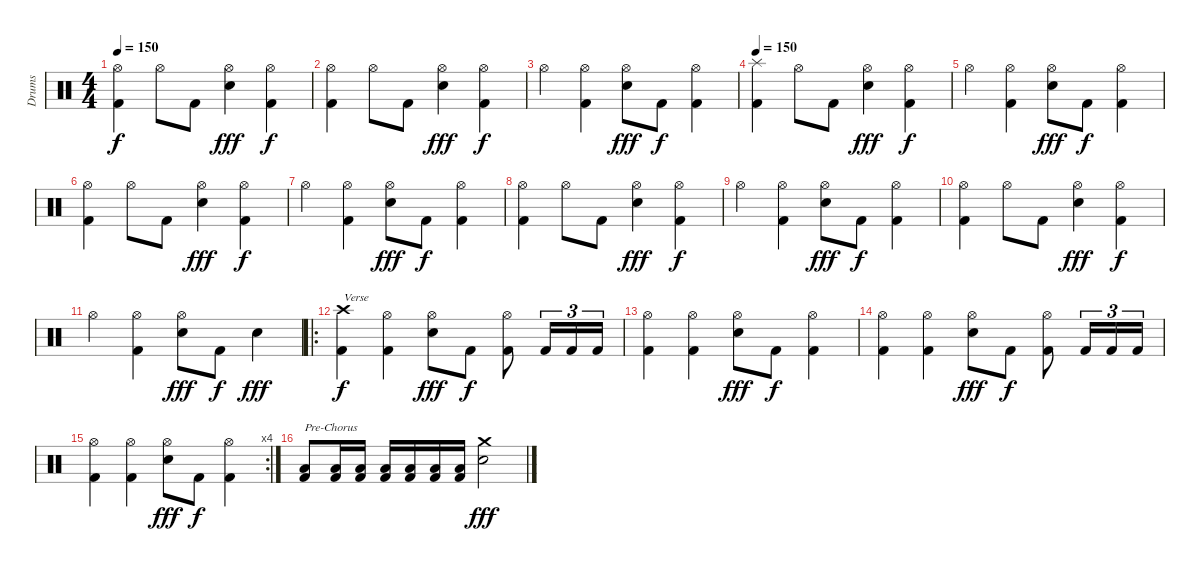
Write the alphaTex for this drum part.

\track ("Drums" "Drums") {instrument percussion}
\staff {score}
\articulation defaults
\ts (4 4)
\tempo 150
\clef neutral
\ks c
("Hi-Hat (open)" "Kick (hit) 2").4{dy f} "Hi-Hat (open)".8 "Kick (hit) 2".8 ("Hi-Hat (open)" "Snare (hit) 2").4{dy fff} ("Hi-Hat (open)" "Kick (hit) 2").4{dy f} |
("Hi-Hat (open)" "Kick (hit) 2").4 "Hi-Hat (open)".8 "Kick (hit) 2".8 ("Hi-Hat (open)" "Snare (hit) 2").4{dy fff} ("Hi-Hat (open)" "Kick (hit) 2").4{dy f} |
"Hi-Hat (open)".4 ("Hi-Hat (open)" "Kick (hit) 2").4 ("Hi-Hat (open)" "Snare (hit) 2").8{dy fff} "Kick (hit) 2".8{dy f} ("Hi-Hat (open)" "Kick (hit) 2").4 |
\tempo 150
("Splash (hit)" "Kick (hit) 2").4 "Hi-Hat (open)".8 "Kick (hit) 2".8 ("Hi-Hat (open)" "Snare (hit) 2").4{dy fff} ("Hi-Hat (open)" "Kick (hit) 2").4{dy f} |
"Hi-Hat (open)".4 ("Hi-Hat (open)" "Kick (hit) 2").4 ("Hi-Hat (open)" "Snare (hit) 2").8{dy fff} "Kick (hit) 2".8{dy f} ("Hi-Hat (open)" "Kick (hit) 2").4 |
("Hi-Hat (open)" "Kick (hit) 2").4 "Hi-Hat (open)".8 "Kick (hit) 2".8 ("Hi-Hat (open)" "Snare (hit) 2").4{dy fff} ("Hi-Hat (open)" "Kick (hit) 2").4{dy f} |
"Hi-Hat (open)".4 ("Hi-Hat (open)" "Kick (hit) 2").4 ("Hi-Hat (open)" "Snare (hit) 2").8{dy fff} "Kick (hit) 2".8{dy f} ("Hi-Hat (open)" "Kick (hit) 2").4 |
("Hi-Hat (open)" "Kick (hit) 2").4 "Hi-Hat (open)".8 "Kick (hit) 2".8 ("Hi-Hat (open)" "Snare (hit) 2").4{dy fff} ("Hi-Hat (open)" "Kick (hit) 2").4{dy f} |
"Hi-Hat (open)".4 ("Hi-Hat (open)" "Kick (hit) 2").4 ("Hi-Hat (open)" "Snare (hit) 2").8{dy fff} "Kick (hit) 2".8{dy f} ("Hi-Hat (open)" "Kick (hit) 2").4 |
("Hi-Hat (open)" "Kick (hit) 2").4 "Hi-Hat (open)".8 "Kick (hit) 2".8 ("Hi-Hat (open)" "Snare (hit) 2").4{dy fff} ("Hi-Hat (open)" "Kick (hit) 2").4{dy f} |
"Hi-Hat (open)".4 ("Hi-Hat (open)" "Kick (hit) 2").4 ("Hi-Hat (open)" "Snare (hit) 2").8{dy fff} "Kick (hit) 2".8{dy f} "Snare (hit) 2".4{dy fff} |
\ro
("Crash high (hit)" "Kick (hit) 2").4{txt "Verse" dy f} ("Hi-Hat (open)" "Kick (hit) 2").4 ("Hi-Hat (open)" "Snare (hit) 2").8{dy fff} "Kick (hit) 2".8{dy f} ("Hi-Hat (open)" "Kick (hit) 2").8 "Kick (hit) 2".16{tu (3 2)} "Kick (hit) 2".16{tu (3 2)} "Kick (hit) 2".16{tu (3 2)} |
("Hi-Hat (open)" "Kick (hit) 2").4 ("Hi-Hat (open)" "Kick (hit) 2").4 ("Hi-Hat (open)" "Snare (hit) 2").8{dy fff} "Kick (hit) 2".8{dy f} ("Hi-Hat (open)" "Kick (hit) 2").4 |
("Hi-Hat (open)" "Kick (hit) 2").4 ("Hi-Hat (open)" "Kick (hit) 2").4 ("Hi-Hat (open)" "Snare (hit) 2").8{dy fff} "Kick (hit) 2".8{dy f} ("Hi-Hat (open)" "Kick (hit) 2").8 "Kick (hit) 2".16{tu (3 2)} "Kick (hit) 2".16{tu (3 2)} "Kick (hit) 2".16{tu (3 2)} |
\rc 4
("Hi-Hat (open)" "Kick (hit) 2").4 ("Hi-Hat (open)" "Kick (hit) 2").4 ("Hi-Hat (open)" "Snare (hit) 2").8{dy fff} "Kick (hit) 2".8{dy f} ("Hi-Hat (open)" "Kick (hit) 2").4 |
("Low Floor Tom (hit)" "Kick (hit) 2").8{txt "Pre-Chorus"} ("Low Floor Tom (hit)" "Kick (hit) 2").16 ("Low Floor Tom (hit)" "Kick (hit) 2").16 ("Low Floor Tom (hit)" "Kick (hit) 2").16 ("Low Floor Tom (hit)" "Kick (hit) 2").16 ("Low Floor Tom (hit)" "Kick (hit) 2").16 ("Low Floor Tom (hit)" "Kick (hit) 2").16 ("Crash medium (hit)" "Snare (hit) 2").2{dy fff}
